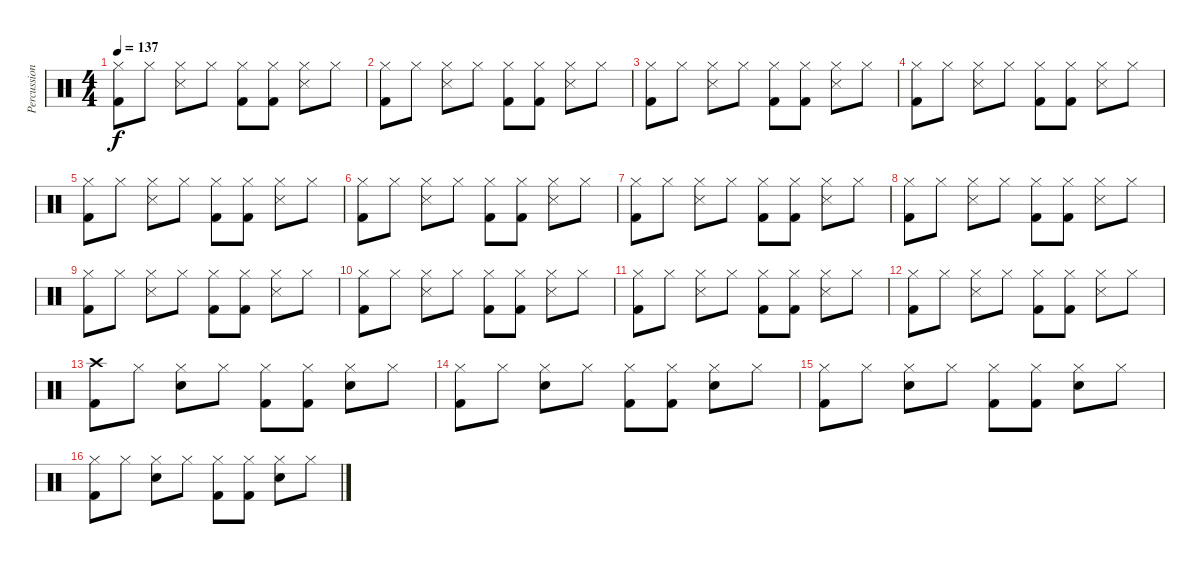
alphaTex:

\track ("Percussions" "Percussion") {instrument percussion}
\staff {score}
\articulation defaults
\ts (4 4)
\tempo 137
\clef neutral
\ks c
("Hi-Hat (closed)" "Kick (hit) 2").8{dy f} "Hi-Hat (closed)".8 ("Hi-Hat (closed)" "Snare (side stick) 3").8 "Hi-Hat (closed)".8 ("Hi-Hat (closed)" "Kick (hit) 2").8 ("Hi-Hat (closed)" "Kick (hit) 2").8 ("Hi-Hat (closed)" "Snare (side stick) 3").8 "Hi-Hat (closed)".8 |
("Hi-Hat (closed)" "Kick (hit) 2").8 "Hi-Hat (closed)".8 ("Hi-Hat (closed)" "Snare (side stick) 3").8 "Hi-Hat (closed)".8 ("Hi-Hat (closed)" "Kick (hit) 2").8 ("Hi-Hat (closed)" "Kick (hit) 2").8 ("Hi-Hat (closed)" "Snare (side stick) 3").8 "Hi-Hat (closed)".8 |
("Hi-Hat (closed)" "Kick (hit) 2").8 "Hi-Hat (closed)".8 ("Hi-Hat (closed)" "Snare (side stick) 3").8 "Hi-Hat (closed)".8 ("Hi-Hat (closed)" "Kick (hit) 2").8 ("Hi-Hat (closed)" "Kick (hit) 2").8 ("Hi-Hat (closed)" "Snare (side stick) 3").8 "Hi-Hat (closed)".8 |
("Hi-Hat (closed)" "Kick (hit) 2").8 "Hi-Hat (closed)".8 ("Hi-Hat (closed)" "Snare (side stick) 3").8 "Hi-Hat (closed)".8 ("Hi-Hat (closed)" "Kick (hit) 2").8 ("Hi-Hat (closed)" "Kick (hit) 2").8 ("Hi-Hat (closed)" "Snare (side stick) 3").8 "Hi-Hat (closed)".8 |
("Hi-Hat (closed)" "Kick (hit) 2").8 "Hi-Hat (closed)".8 ("Hi-Hat (closed)" "Snare (side stick) 3").8 "Hi-Hat (closed)".8 ("Hi-Hat (closed)" "Kick (hit) 2").8 ("Hi-Hat (closed)" "Kick (hit) 2").8 ("Hi-Hat (closed)" "Snare (side stick) 3").8 "Hi-Hat (closed)".8 |
("Hi-Hat (closed)" "Kick (hit) 2").8 "Hi-Hat (closed)".8 ("Hi-Hat (closed)" "Snare (side stick) 3").8 "Hi-Hat (closed)".8 ("Hi-Hat (closed)" "Kick (hit) 2").8 ("Hi-Hat (closed)" "Kick (hit) 2").8 ("Hi-Hat (closed)" "Snare (side stick) 3").8 "Hi-Hat (closed)".8 |
("Hi-Hat (closed)" "Kick (hit) 2").8 "Hi-Hat (closed)".8 ("Hi-Hat (closed)" "Snare (side stick) 3").8 "Hi-Hat (closed)".8 ("Hi-Hat (closed)" "Kick (hit) 2").8 ("Hi-Hat (closed)" "Kick (hit) 2").8 ("Hi-Hat (closed)" "Snare (side stick) 3").8 "Hi-Hat (closed)".8 |
("Hi-Hat (closed)" "Kick (hit) 2").8 "Hi-Hat (closed)".8 ("Hi-Hat (closed)" "Snare (side stick) 3").8 "Hi-Hat (closed)".8 ("Hi-Hat (closed)" "Kick (hit) 2").8 ("Hi-Hat (closed)" "Kick (hit) 2").8 ("Hi-Hat (closed)" "Snare (side stick) 3").8 "Hi-Hat (closed)".8 |
("Hi-Hat (closed)" "Kick (hit) 2").8 "Hi-Hat (closed)".8 ("Hi-Hat (closed)" "Snare (side stick) 3").8 "Hi-Hat (closed)".8 ("Hi-Hat (closed)" "Kick (hit) 2").8 ("Hi-Hat (closed)" "Kick (hit) 2").8 ("Hi-Hat (closed)" "Snare (side stick) 3").8 "Hi-Hat (closed)".8 |
("Hi-Hat (closed)" "Kick (hit) 2").8 "Hi-Hat (closed)".8 ("Hi-Hat (closed)" "Snare (side stick) 3").8 "Hi-Hat (closed)".8 ("Hi-Hat (closed)" "Kick (hit) 2").8 ("Hi-Hat (closed)" "Kick (hit) 2").8 ("Hi-Hat (closed)" "Snare (side stick) 3").8 "Hi-Hat (closed)".8 |
("Hi-Hat (closed)" "Kick (hit) 2").8 "Hi-Hat (closed)".8 ("Hi-Hat (closed)" "Snare (side stick) 3").8 "Hi-Hat (closed)".8 ("Hi-Hat (closed)" "Kick (hit) 2").8 ("Hi-Hat (closed)" "Kick (hit) 2").8 ("Hi-Hat (closed)" "Snare (side stick) 3").8 "Hi-Hat (closed)".8 |
("Hi-Hat (closed)" "Kick (hit) 2").8 "Hi-Hat (closed)".8 ("Hi-Hat (closed)" "Snare (side stick) 3").8 "Hi-Hat (closed)".8 ("Hi-Hat (closed)" "Kick (hit) 2").8 ("Hi-Hat (closed)" "Kick (hit) 2").8 ("Hi-Hat (closed)" "Snare (side stick) 3").8 "Hi-Hat (closed)".8 |
("Crash high (hit)" "Kick (hit) 2").8 "Hi-Hat (closed)".8 ("Hi-Hat (closed)" "Snare (hit) 2").8 "Hi-Hat (closed)".8 ("Hi-Hat (closed)" "Kick (hit) 2").8 ("Hi-Hat (closed)" "Kick (hit) 2").8 ("Hi-Hat (closed)" "Snare (hit) 2").8 "Hi-Hat (closed)".8 |
("Hi-Hat (closed)" "Kick (hit) 2").8 "Hi-Hat (closed)".8 ("Hi-Hat (closed)" "Snare (hit) 2").8 "Hi-Hat (closed)".8 ("Hi-Hat (closed)" "Kick (hit) 2").8 ("Hi-Hat (closed)" "Kick (hit) 2").8 ("Hi-Hat (closed)" "Snare (hit) 2").8 "Hi-Hat (closed)".8 |
("Hi-Hat (closed)" "Kick (hit) 2").8 "Hi-Hat (closed)".8 ("Hi-Hat (closed)" "Snare (hit) 2").8 "Hi-Hat (closed)".8 ("Hi-Hat (closed)" "Kick (hit) 2").8 ("Hi-Hat (closed)" "Kick (hit) 2").8 ("Hi-Hat (closed)" "Snare (hit) 2").8 "Hi-Hat (closed)".8 |
("Hi-Hat (closed)" "Kick (hit) 2").8 "Hi-Hat (closed)".8 ("Hi-Hat (closed)" "Snare (hit) 2").8 "Hi-Hat (closed)".8 ("Hi-Hat (closed)" "Kick (hit) 2").8 ("Hi-Hat (closed)" "Kick (hit) 2").8 ("Hi-Hat (closed)" "Snare (hit) 2").8 "Hi-Hat (closed)".8
